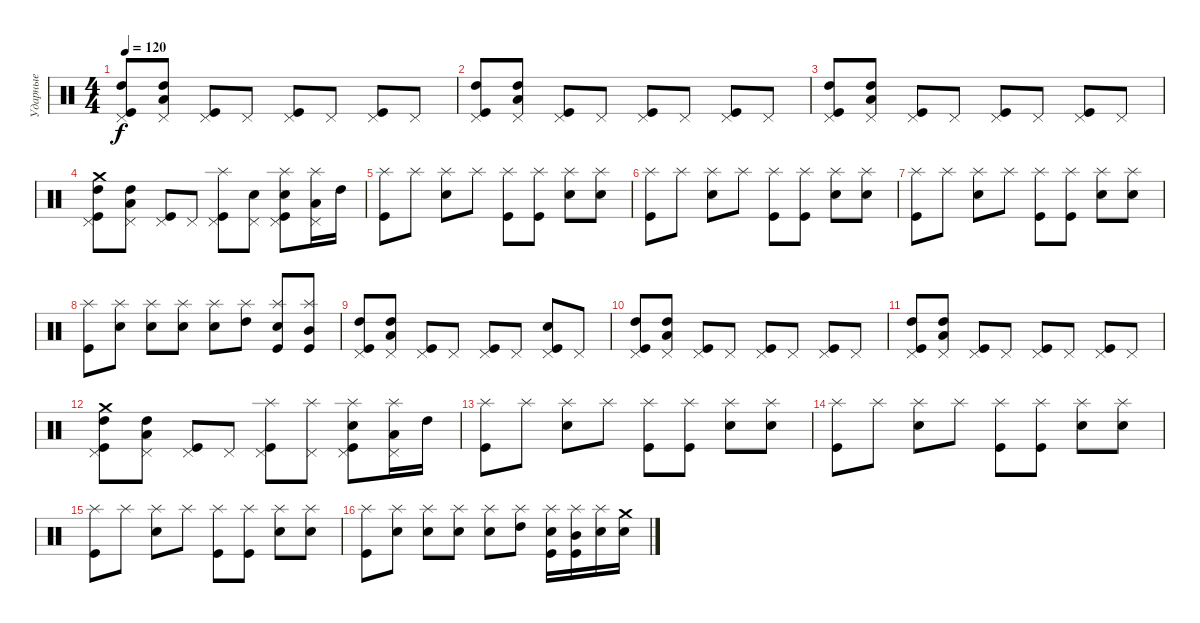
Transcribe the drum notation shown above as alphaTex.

\track ("Ударные" "Ударные") {instrument percussion}
\staff {score}
\articulation defaults
\ts (4 4)
\tempo 120
\clef neutral
\ks c
("Pedal Hi-Hat (hit)" "High Tom (hit)" "Kick (hit)").8{dy f} ("Pedal Hi-Hat (hit)" "High Tom (hit)" "Low Floor Tom (hit)").8 ("Pedal Hi-Hat (hit)" "Kick (hit)").8 "Pedal Hi-Hat (hit)".8 ("Pedal Hi-Hat (hit)" "Kick (hit)").8 "Pedal Hi-Hat (hit)".8 ("Pedal Hi-Hat (hit)" "Kick (hit)").8 "Pedal Hi-Hat (hit)".8 |
("Pedal Hi-Hat (hit)" "High Tom (hit)" "Kick (hit)").8 ("Pedal Hi-Hat (hit)" "High Tom (hit)" "Low Floor Tom (hit)").8 ("Pedal Hi-Hat (hit)" "Kick (hit)").8 "Pedal Hi-Hat (hit)".8 ("Pedal Hi-Hat (hit)" "Kick (hit)").8 "Pedal Hi-Hat (hit)".8 ("Pedal Hi-Hat (hit)" "Kick (hit)").8 "Pedal Hi-Hat (hit)".8 |
("Pedal Hi-Hat (hit)" "High Tom (hit)" "Kick (hit)").8 ("Pedal Hi-Hat (hit)" "High Tom (hit)" "Low Floor Tom (hit)").8 ("Pedal Hi-Hat (hit)" "Kick (hit)").8 "Pedal Hi-Hat (hit)".8 ("Pedal Hi-Hat (hit)" "Kick (hit)").8 "Pedal Hi-Hat (hit)".8 ("Pedal Hi-Hat (hit)" "Kick (hit)").8 "Pedal Hi-Hat (hit)".8 |
("Pedal Hi-Hat (hit)" "Crash medium (hit)" "High Tom (hit)" "Kick (hit)").8 ("Pedal Hi-Hat (hit)" "High Tom (hit)" "Low Floor Tom (hit)").8 ("Pedal Hi-Hat (hit)" "Kick (hit)").8 "Pedal Hi-Hat (hit)".8 ("Pedal Hi-Hat (hit)" "Splash (hit)" "Kick (hit)").8 ("Pedal Hi-Hat (hit)" "Snare (hit) 2").8 ("Pedal Hi-Hat (hit)" "Splash (hit)" "Snare (hit) 2" "Kick (hit)").8 ("Pedal Hi-Hat (hit)" "Splash (hit)" "Low Floor Tom (hit)").16 "High Tom (hit)".16 |
("Splash (hit)" "Kick (hit)").8 "Splash (hit)".8 ("Splash (hit)" "Snare (hit) 2").8 "Splash (hit)".8 ("Splash (hit)" "Kick (hit)").8 ("Splash (hit)" "Kick (hit)").8 ("Splash (hit)" "Snare (hit) 2").8 ("Splash (hit)" "Snare (hit) 2").8 |
("Splash (hit)" "Kick (hit)").8 "Splash (hit)".8 ("Splash (hit)" "Snare (hit) 2").8 "Splash (hit)".8 ("Splash (hit)" "Kick (hit)").8 ("Splash (hit)" "Kick (hit)").8 ("Splash (hit)" "Snare (hit) 2").8 ("Splash (hit)" "Snare (hit) 2").8 |
("Splash (hit)" "Kick (hit)").8 "Splash (hit)".8 ("Splash (hit)" "Snare (hit) 2").8 "Splash (hit)".8 ("Splash (hit)" "Kick (hit)").8 ("Splash (hit)" "Kick (hit)").8 ("Splash (hit)" "Snare (hit) 2").8 ("Splash (hit)" "Snare (hit) 2").8 |
("Splash (hit)" "Kick (hit)").8 ("Splash (hit)" "Electric Snare (hit)").8 ("Splash (hit)" "Snare (hit) 2").8 ("Splash (hit)" "Snare (hit) 2").8 ("Splash (hit)" "Electric Snare (hit)").8 ("Splash (hit)" "High Tom (hit)").8 ("Splash (hit)" "Snare (hit) 2" "Kick (hit)").8 ("Splash (hit)" "Mid Tom (hit)" "Kick (hit)").8 |
("Pedal Hi-Hat (hit)" "High Tom (hit)" "Kick (hit)").8 ("Pedal Hi-Hat (hit)" "High Tom (hit)" "Low Floor Tom (hit)").8 ("Pedal Hi-Hat (hit)" "Kick (hit)").8 "Pedal Hi-Hat (hit)".8 ("Pedal Hi-Hat (hit)" "Kick (hit)").8 "Pedal Hi-Hat (hit)".8 ("Pedal Hi-Hat (hit)" "Snare (hit) 2" "Kick (hit)").8 "Pedal Hi-Hat (hit)".8 |
("Pedal Hi-Hat (hit)" "High Tom (hit)" "Kick (hit)").8 ("Pedal Hi-Hat (hit)" "High Tom (hit)" "Low Floor Tom (hit)").8 ("Pedal Hi-Hat (hit)" "Kick (hit)").8 "Pedal Hi-Hat (hit)".8 ("Pedal Hi-Hat (hit)" "Kick (hit)").8 "Pedal Hi-Hat (hit)".8 ("Pedal Hi-Hat (hit)" "Kick (hit)").8 "Pedal Hi-Hat (hit)".8 |
("Pedal Hi-Hat (hit)" "High Tom (hit)" "Kick (hit)").8 ("Pedal Hi-Hat (hit)" "High Tom (hit)" "Low Floor Tom (hit)").8 ("Pedal Hi-Hat (hit)" "Kick (hit)").8 "Pedal Hi-Hat (hit)".8 ("Pedal Hi-Hat (hit)" "Kick (hit)").8 "Pedal Hi-Hat (hit)".8 ("Pedal Hi-Hat (hit)" "Kick (hit)").8 "Pedal Hi-Hat (hit)".8 |
("Pedal Hi-Hat (hit)" "Crash medium (hit)" "High Tom (hit)" "Kick (hit)").8 ("Pedal Hi-Hat (hit)" "High Tom (hit)" "Low Floor Tom (hit)").8 ("Pedal Hi-Hat (hit)" "Kick (hit)").8 "Pedal Hi-Hat (hit)".8 ("Pedal Hi-Hat (hit)" "Splash (hit)" "Kick (hit)").8 ("Pedal Hi-Hat (hit)" "Splash (hit)").8 ("Pedal Hi-Hat (hit)" "Splash (hit)" "Snare (hit) 2" "Kick (hit)").8 ("Pedal Hi-Hat (hit)" "Splash (hit)" "Low Floor Tom (hit)").16 "High Tom (hit)".16 |
("Splash (hit)" "Kick (hit)").8 "Splash (hit)".8 ("Splash (hit)" "Snare (hit) 2").8 "Splash (hit)".8 ("Splash (hit)" "Kick (hit)").8 ("Splash (hit)" "Kick (hit)").8 ("Splash (hit)" "Snare (hit) 2").8 ("Splash (hit)" "Snare (hit) 2").8 |
("Splash (hit)" "Kick (hit)").8 "Splash (hit)".8 ("Splash (hit)" "Snare (hit) 2").8 "Splash (hit)".8 ("Splash (hit)" "Kick (hit)").8 ("Splash (hit)" "Kick (hit)").8 ("Splash (hit)" "Snare (hit) 2").8 ("Splash (hit)" "Snare (hit) 2").8 |
("Splash (hit)" "Kick (hit)").8 "Splash (hit)".8 ("Splash (hit)" "Snare (hit) 2").8 "Splash (hit)".8 ("Splash (hit)" "Kick (hit)").8 ("Splash (hit)" "Kick (hit)").8 ("Splash (hit)" "Snare (hit) 2").8 ("Splash (hit)" "Snare (hit) 2").8 |
("Splash (hit)" "Kick (hit)").8 ("Splash (hit)" "Electric Snare (hit)").8 ("Splash (hit)" "Snare (hit) 2").8 ("Splash (hit)" "Snare (hit) 2").8 ("Splash (hit)" "Electric Snare (hit)").8 ("Splash (hit)" "High Tom (hit)").8 ("Splash (hit)" "Snare (hit) 2" "Kick (hit)").16 ("Splash (hit)" "Mid Tom (hit)" "Kick (hit)").16 ("Splash (hit)" "Snare (hit) 2").16 ("Crash medium (hit)" "Snare (hit) 2").16
